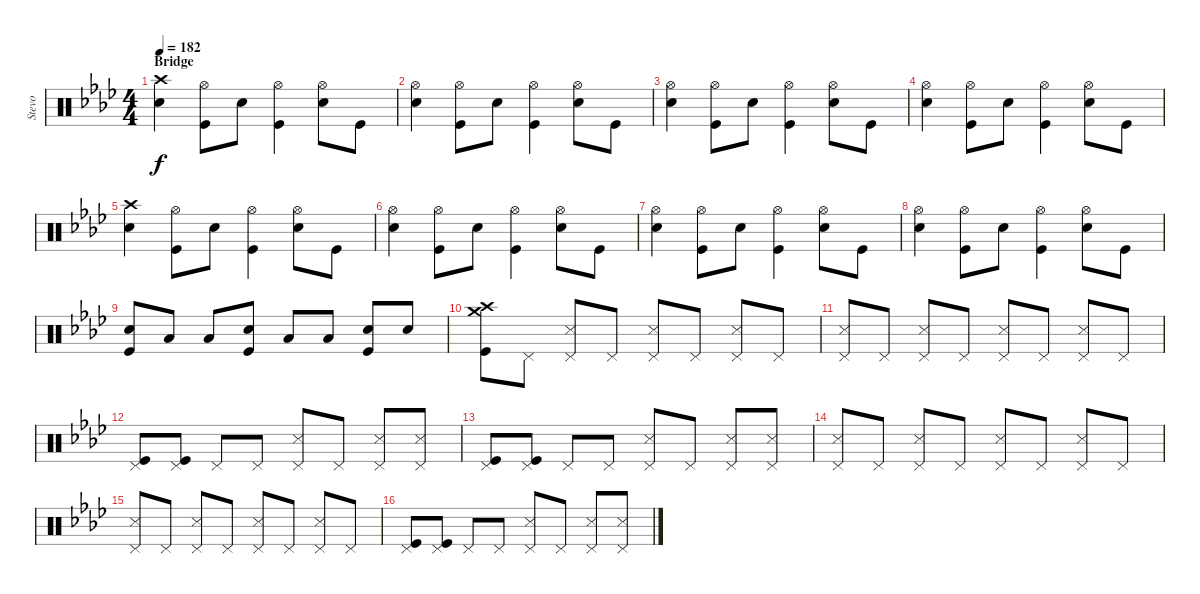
\track ("Stevo" "Stevo") {instrument percussion}
\staff {score}
\articulation defaults
\ts (4 4)
\section ("" "Bridge")
\tempo 182
\clef neutral
\ks ab
("Crash high (hit)" "Snare (hit) 2").4{dy f} ("Hi-Hat (open)" "Kick (hit)").8 "Snare (hit) 2".8 ("Hi-Hat (open)" "Kick (hit)").4 ("Hi-Hat (open)" "Snare (hit) 2").8 "Kick (hit)".8 |
("Hi-Hat (open)" "Snare (hit) 2").4 ("Hi-Hat (open)" "Kick (hit)").8 "Snare (hit) 2".8 ("Hi-Hat (open)" "Kick (hit)").4 ("Hi-Hat (open)" "Snare (hit) 2").8 "Kick (hit)".8 |
("Hi-Hat (open)" "Snare (hit) 2").4 ("Hi-Hat (open)" "Kick (hit)").8 "Snare (hit) 2".8 ("Hi-Hat (open)" "Kick (hit)").4 ("Hi-Hat (open)" "Snare (hit) 2").8 "Kick (hit)".8 |
("Hi-Hat (open)" "Snare (hit) 2").4 ("Hi-Hat (open)" "Kick (hit)").8 "Snare (hit) 2".8 ("Hi-Hat (open)" "Kick (hit)").4 ("Hi-Hat (open)" "Snare (hit) 2").8 "Kick (hit)".8 |
("Crash high (hit)" "Snare (hit) 2").4 ("Hi-Hat (open)" "Kick (hit)").8 "Snare (hit) 2".8 ("Hi-Hat (open)" "Kick (hit)").4 ("Hi-Hat (open)" "Snare (hit) 2").8 "Kick (hit)".8 |
("Hi-Hat (open)" "Snare (hit) 2").4 ("Hi-Hat (open)" "Kick (hit)").8 "Snare (hit) 2".8 ("Hi-Hat (open)" "Kick (hit)").4 ("Hi-Hat (open)" "Snare (hit) 2").8 "Kick (hit)".8 |
("Hi-Hat (open)" "Snare (hit) 2").4 ("Hi-Hat (open)" "Kick (hit)").8 "Snare (hit) 2".8 ("Hi-Hat (open)" "Kick (hit)").4 ("Hi-Hat (open)" "Snare (hit) 2").8 "Kick (hit)".8 |
("Hi-Hat (open)" "Snare (hit) 2").4 ("Hi-Hat (open)" "Kick (hit)").8 "Snare (hit) 2".8 ("Hi-Hat (open)" "Kick (hit)").4 ("Hi-Hat (open)" "Snare (hit) 2").8 "Kick (hit)".8 |
("Snare (hit) 2" "Kick (hit)").8 "Low Tom (hit)".8 "Low Tom (hit)".8 ("Snare (hit) 2" "Kick (hit)").8 "Low Tom (hit)".8 "Low Tom (hit)".8 ("Snare (hit) 2" "Kick (hit)").8 "Snare (hit) 2".8 |
("Crash medium (hit)" "Crash high (hit)" "Kick (hit)").8 "Pedal Hi-Hat (hit)".8 ("Pedal Hi-Hat (hit)" "Snare (side stick) 3").8 "Pedal Hi-Hat (hit)".8 ("Pedal Hi-Hat (hit)" "Snare (side stick) 3").8 "Pedal Hi-Hat (hit)".8 ("Pedal Hi-Hat (hit)" "Snare (side stick) 3").8 "Pedal Hi-Hat (hit)".8 |
("Pedal Hi-Hat (hit)" "Snare (side stick) 3").8 "Pedal Hi-Hat (hit)".8 ("Pedal Hi-Hat (hit)" "Snare (side stick) 3").8 "Pedal Hi-Hat (hit)".8 ("Pedal Hi-Hat (hit)" "Snare (side stick) 3").8 "Pedal Hi-Hat (hit)".8 ("Pedal Hi-Hat (hit)" "Snare (side stick) 3").8 "Pedal Hi-Hat (hit)".8 |
("Pedal Hi-Hat (hit)" "Kick (hit)").8 ("Pedal Hi-Hat (hit)" "Kick (hit)").8 "Pedal Hi-Hat (hit)".8 "Pedal Hi-Hat (hit)".8 ("Pedal Hi-Hat (hit)" "Snare (side stick) 3").8 "Pedal Hi-Hat (hit)".8 ("Pedal Hi-Hat (hit)" "Snare (side stick) 3").8 ("Pedal Hi-Hat (hit)" "Snare (side stick) 3").8 |
("Pedal Hi-Hat (hit)" "Kick (hit)").8 ("Pedal Hi-Hat (hit)" "Kick (hit)").8 "Pedal Hi-Hat (hit)".8 "Pedal Hi-Hat (hit)".8 ("Pedal Hi-Hat (hit)" "Snare (side stick) 3").8 "Pedal Hi-Hat (hit)".8 ("Pedal Hi-Hat (hit)" "Snare (side stick) 3").8 ("Pedal Hi-Hat (hit)" "Snare (side stick) 3").8 |
("Pedal Hi-Hat (hit)" "Snare (side stick) 3").8 "Pedal Hi-Hat (hit)".8 ("Pedal Hi-Hat (hit)" "Snare (side stick) 3").8 "Pedal Hi-Hat (hit)".8 ("Pedal Hi-Hat (hit)" "Snare (side stick) 3").8 "Pedal Hi-Hat (hit)".8 ("Pedal Hi-Hat (hit)" "Snare (side stick) 3").8 "Pedal Hi-Hat (hit)".8 |
("Pedal Hi-Hat (hit)" "Snare (side stick) 3").8 "Pedal Hi-Hat (hit)".8 ("Pedal Hi-Hat (hit)" "Snare (side stick) 3").8 "Pedal Hi-Hat (hit)".8 ("Pedal Hi-Hat (hit)" "Snare (side stick) 3").8 "Pedal Hi-Hat (hit)".8 ("Pedal Hi-Hat (hit)" "Snare (side stick) 3").8 "Pedal Hi-Hat (hit)".8 |
("Pedal Hi-Hat (hit)" "Kick (hit)").8 ("Pedal Hi-Hat (hit)" "Kick (hit)").8 "Pedal Hi-Hat (hit)".8 "Pedal Hi-Hat (hit)".8 ("Pedal Hi-Hat (hit)" "Snare (side stick) 3").8 "Pedal Hi-Hat (hit)".8 ("Pedal Hi-Hat (hit)" "Snare (side stick) 3").8 ("Pedal Hi-Hat (hit)" "Snare (side stick) 3").8
